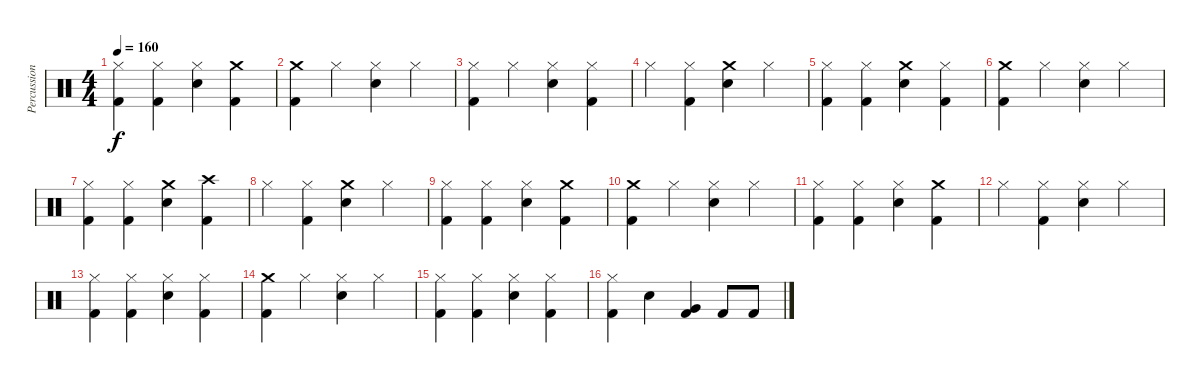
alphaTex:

\track ("Percussion" "Percussion") {instrument percussion}
\staff {score}
\articulation defaults
\ts (4 4)
\tempo 160
\clef neutral
\ks c
("Hi-Hat (closed)" "Kick (hit) 2").4{dy f} ("Hi-Hat (closed)" "Kick (hit) 2").4 ("Hi-Hat (closed)" "Snare (hit) 2").4 ("Crash medium (hit)" "Kick (hit) 2").4 |
("Crash medium (hit)" "Kick (hit) 2").4 "Hi-Hat (closed)".4 ("Hi-Hat (closed)" "Snare (hit) 2").4 "Hi-Hat (closed)".4 |
("Hi-Hat (closed)" "Kick (hit) 2").4 "Hi-Hat (closed)".4 ("Hi-Hat (closed)" "Snare (hit) 2").4 ("Hi-Hat (closed)" "Kick (hit) 2").4 |
"Hi-Hat (closed)".4 ("Hi-Hat (closed)" "Kick (hit) 2").4 ("Crash medium (hit)" "Snare (hit) 2").4 "Hi-Hat (closed)".4 |
("Hi-Hat (closed)" "Kick (hit) 2").4 ("Hi-Hat (closed)" "Kick (hit) 2").4 ("Crash medium (hit)" "Snare (hit) 2").4 ("Hi-Hat (closed)" "Kick (hit) 2").4 |
("Crash medium (hit)" "Kick (hit) 2").4 "Hi-Hat (closed)".4 ("Hi-Hat (closed)" "Snare (hit) 2").4 "Hi-Hat (closed)".4 |
("Hi-Hat (closed)" "Kick (hit) 2").4 ("Hi-Hat (closed)" "Kick (hit) 2").4 ("Crash medium (hit)" "Snare (hit) 2").4 ("Crash high (hit)" "Kick (hit) 2").4 |
"Hi-Hat (closed)".4 ("Hi-Hat (closed)" "Kick (hit) 2").4 ("Crash medium (hit)" "Snare (hit) 2").4 "Hi-Hat (closed)".4 |
("Hi-Hat (closed)" "Kick (hit) 2").4 ("Hi-Hat (closed)" "Kick (hit) 2").4 ("Hi-Hat (closed)" "Snare (hit) 2").4 ("Crash medium (hit)" "Kick (hit) 2").4 |
("Crash medium (hit)" "Kick (hit) 2").4 "Hi-Hat (closed)".4 ("Hi-Hat (closed)" "Snare (hit) 2").4 "Hi-Hat (closed)".4 |
("Hi-Hat (closed)" "Kick (hit) 2").4 ("Hi-Hat (closed)" "Kick (hit) 2").4 ("Hi-Hat (closed)" "Snare (hit) 2").4 ("Crash medium (hit)" "Kick (hit) 2").4 |
"Hi-Hat (closed)".4 ("Hi-Hat (closed)" "Kick (hit) 2").4 ("Hi-Hat (closed)" "Snare (hit) 2").4 "Hi-Hat (closed)".4 |
("Hi-Hat (closed)" "Kick (hit) 2").4 ("Hi-Hat (closed)" "Kick (hit) 2").4 ("Hi-Hat (closed)" "Snare (hit) 2").4 ("Hi-Hat (closed)" "Kick (hit) 2").4 |
("Crash medium (hit)" "Kick (hit) 2").4 "Hi-Hat (closed)".4 ("Hi-Hat (closed)" "Snare (hit) 2").4 "Hi-Hat (closed)".4 |
("Hi-Hat (closed)" "Kick (hit) 2").4 ("Hi-Hat (closed)" "Kick (hit) 2").4 ("Hi-Hat (closed)" "Snare (hit) 2").4 ("Hi-Hat (closed)" "Kick (hit) 2").4 |
("Hi-Hat (closed)" "Kick (hit) 2").4 "Snare (hit) 2".4 ("Very Low Tom (hit)" "Kick (hit) 2").4 "Kick (hit) 2".8 "Kick (hit) 2".8
